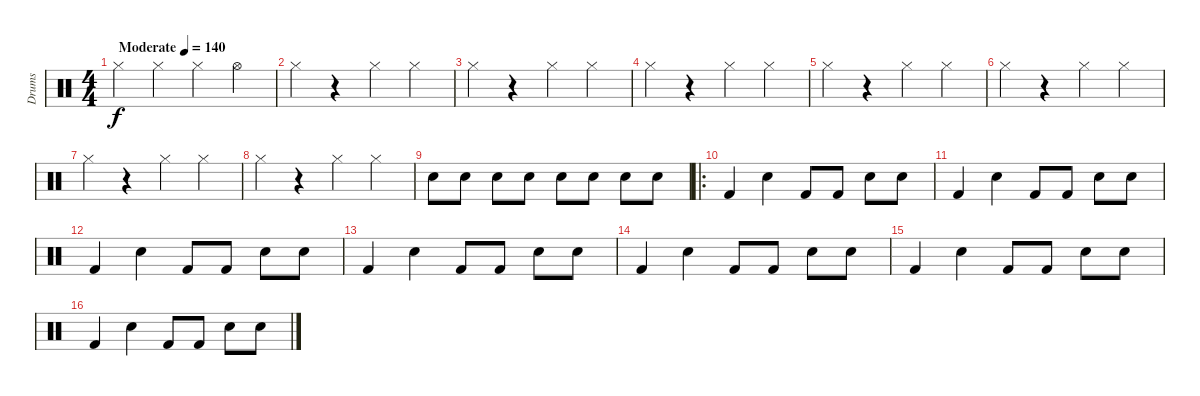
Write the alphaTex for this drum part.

\track ("Drums" "Drums") {instrument percussion}
\staff {score}
\articulation defaults
\ts (4 4)
\tempo (140 "Moderate")
\clef neutral
\ks c "Hi-Hat (closed)".4{dy f} "Hi-Hat (closed)".4 "Hi-Hat (closed)".4 "Hi-Hat (open)".4
|
"Hi-Hat (closed)".4 r.4 "Hi-Hat (closed)".4 "Hi-Hat (closed)".4 |
"Hi-Hat (closed)".4 r.4 "Hi-Hat (closed)".4 "Hi-Hat (closed)".4 |
"Hi-Hat (closed)".4 r.4 "Hi-Hat (closed)".4 "Hi-Hat (closed)".4 |
"Hi-Hat (closed)".4 r.4 "Hi-Hat (closed)".4 "Hi-Hat (closed)".4 |
"Hi-Hat (closed)".4 r.4 "Hi-Hat (closed)".4 "Hi-Hat (closed)".4 |
"Hi-Hat (closed)".4 r.4 "Hi-Hat (closed)".4 "Hi-Hat (closed)".4 |
"Hi-Hat (closed)".4 r.4 "Hi-Hat (closed)".4 "Hi-Hat (closed)".4 |
"Electric Snare (hit)".8 "Electric Snare (hit)".8 "Electric Snare (hit)".8 "Electric Snare (hit)".8 "Electric Snare (hit)".8 "Electric Snare (hit)".8 "Electric Snare (hit)".8 "Electric Snare (hit)".8 |
\ro "Kick (hit) 2".4 "Electric Snare (hit)".4 "Kick (hit) 2".8 "Kick (hit) 2".8 "Electric Snare (hit)".8 "Electric Snare (hit)".8
|
"Kick (hit) 2".4 "Electric Snare (hit)".4 "Kick (hit) 2".8 "Kick (hit) 2".8 "Electric Snare (hit)".8 "Electric Snare (hit)".8 |
"Kick (hit) 2".4 "Electric Snare (hit)".4 "Kick (hit) 2".8 "Kick (hit) 2".8 "Electric Snare (hit)".8 "Electric Snare (hit)".8 |
"Kick (hit) 2".4 "Electric Snare (hit)".4 "Kick (hit) 2".8 "Kick (hit) 2".8 "Electric Snare (hit)".8 "Electric Snare (hit)".8 |
"Kick (hit) 2".4 "Electric Snare (hit)".4 "Kick (hit) 2".8 "Kick (hit) 2".8 "Electric Snare (hit)".8 "Electric Snare (hit)".8 |
"Kick (hit) 2".4 "Electric Snare (hit)".4 "Kick (hit) 2".8 "Kick (hit) 2".8 "Electric Snare (hit)".8 "Electric Snare (hit)".8 |
"Kick (hit) 2".4 "Electric Snare (hit)".4 "Kick (hit) 2".8 "Kick (hit) 2".8 "Electric Snare (hit)".8 "Electric Snare (hit)".8
